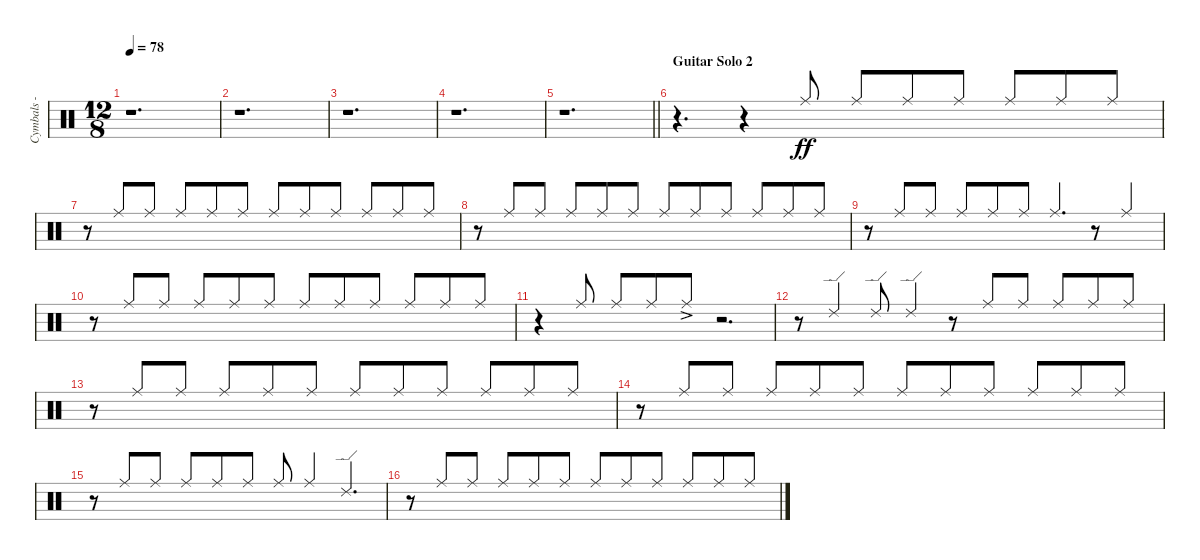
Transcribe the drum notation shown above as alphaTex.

\track ("Cymbals - ride" "Cymbals - ") {instrument percussion}
\staff {score}
\articulation defaults
\ts (12 8)
\tempo 78
\clef neutral
\ks c
r.1{d dy ff} |
r.1{d} |
r.1{d} |
r.1{d} |
\barLineRight lightlight
r.1{d} |
\section ("" "Guitar Solo 2")
r.4{d} r.4 "Ride (middle)".8{beam Up} "Ride (middle)".8{beam Up} "Ride (middle)".8{beam Up} "Ride (middle)".8{beam Up} "Ride (middle)".8{beam Up} "Ride (middle)".8{beam Up} "Ride (middle)".8{beam Up} |
r.8 "Ride (middle)".8{beam Up} "Ride (middle)".8{beam Up} "Ride (middle)".8{beam Up} "Ride (middle)".8{beam Up} "Ride (middle)".8{beam Up} "Ride (middle)".8{beam Up} "Ride (middle)".8{beam Up} "Ride (middle)".8{beam Up} "Ride (middle)".8{beam Up} "Ride (middle)".8{beam Up} "Ride (middle)".8{beam Up} |
r.8 "Ride (middle)".8{beam Up} "Ride (middle)".8{beam Up} "Ride (middle)".8{beam Up} "Ride (middle)".8{beam Up} "Ride (middle)".8{beam Up} "Ride (middle)".8{beam Up} "Ride (middle)".8{beam Up} "Ride (middle)".8{beam Up} "Ride (middle)".8{beam Up} "Ride (middle)".8{beam Up} "Ride (middle)".8{beam Up} |
r.8 "Ride (middle)".8{beam Up} "Ride (middle)".8{beam Up} "Ride (middle)".8{beam Up} "Ride (middle)".8{beam Up} "Ride (middle)".8{beam Up} "Ride (middle)".4{d beam Up} r.8 "Ride (middle)".4{beam Up} |
r.8 "Ride (middle)".8{beam Up} "Ride (middle)".8{beam Up} "Ride (middle)".8{beam Up} "Ride (middle)".8{beam Up} "Ride (middle)".8{beam Up} "Ride (middle)".8{beam Up} "Ride (middle)".8{beam Up} "Ride (middle)".8{beam Up} "Ride (middle)".8{beam Up} "Ride (middle)".8{beam Up} "Ride (middle)".8{beam Up} |
r.4 "Ride (middle)".8{beam Up} "Ride (middle)".8{beam Up} "Ride (middle)".8{beam Up} "Ride (middle)"{ac}.8{beam Up} r.2{d} |
r.8 "Ride (edge) 2".4{beam Up} "Ride (edge) 2".8{beam Up} "Ride (edge) 2".4{beam Up} r.8 "Ride (middle)".8{beam Up} "Ride (middle)".8{beam Up} "Ride (middle)".8{beam Up} "Ride (middle)".8{beam Up} "Ride (middle)".8{beam Up} |
r.8 "Ride (middle)".8{beam Up} "Ride (middle)".8{beam Up} "Ride (middle)".8{beam Up} "Ride (middle)".8{beam Up} "Ride (middle)".8{beam Up} "Ride (middle)".8{beam Up} "Ride (middle)".8{beam Up} "Ride (middle)".8{beam Up} "Ride (middle)".8{beam Up} "Ride (middle)".8{beam Up} "Ride (middle)".8{beam Up} |
r.8 "Ride (middle)".8{beam Up} "Ride (middle)".8{beam Up} "Ride (middle)".8{beam Up} "Ride (middle)".8{beam Up} "Ride (middle)".8{beam Up} "Ride (middle)".8{beam Up} "Ride (middle)".8{beam Up} "Ride (middle)".8{beam Up} "Ride (middle)".8{beam Up} "Ride (middle)".8{beam Up} "Ride (middle)".8{beam Up} |
r.8 "Ride (middle)".8{beam Up} "Ride (middle)".8{beam Up} "Ride (middle)".8{beam Up} "Ride (middle)".8{beam Up} "Ride (middle)".8{beam Up} "Ride (middle)".8{beam Up} "Ride (middle)".4{beam Up} "Ride (edge) 2".4{d beam Up} |
r.8 "Ride (middle)".8{beam Up} "Ride (middle)".8{beam Up} "Ride (middle)".8{beam Up} "Ride (middle)".8{beam Up} "Ride (middle)".8{beam Up} "Ride (middle)".8{beam Up} "Ride (middle)".8{beam Up} "Ride (middle)".8{beam Up} "Ride (middle)".8{beam Up} "Ride (middle)".8{beam Up} "Ride (middle)".8{beam Up}
